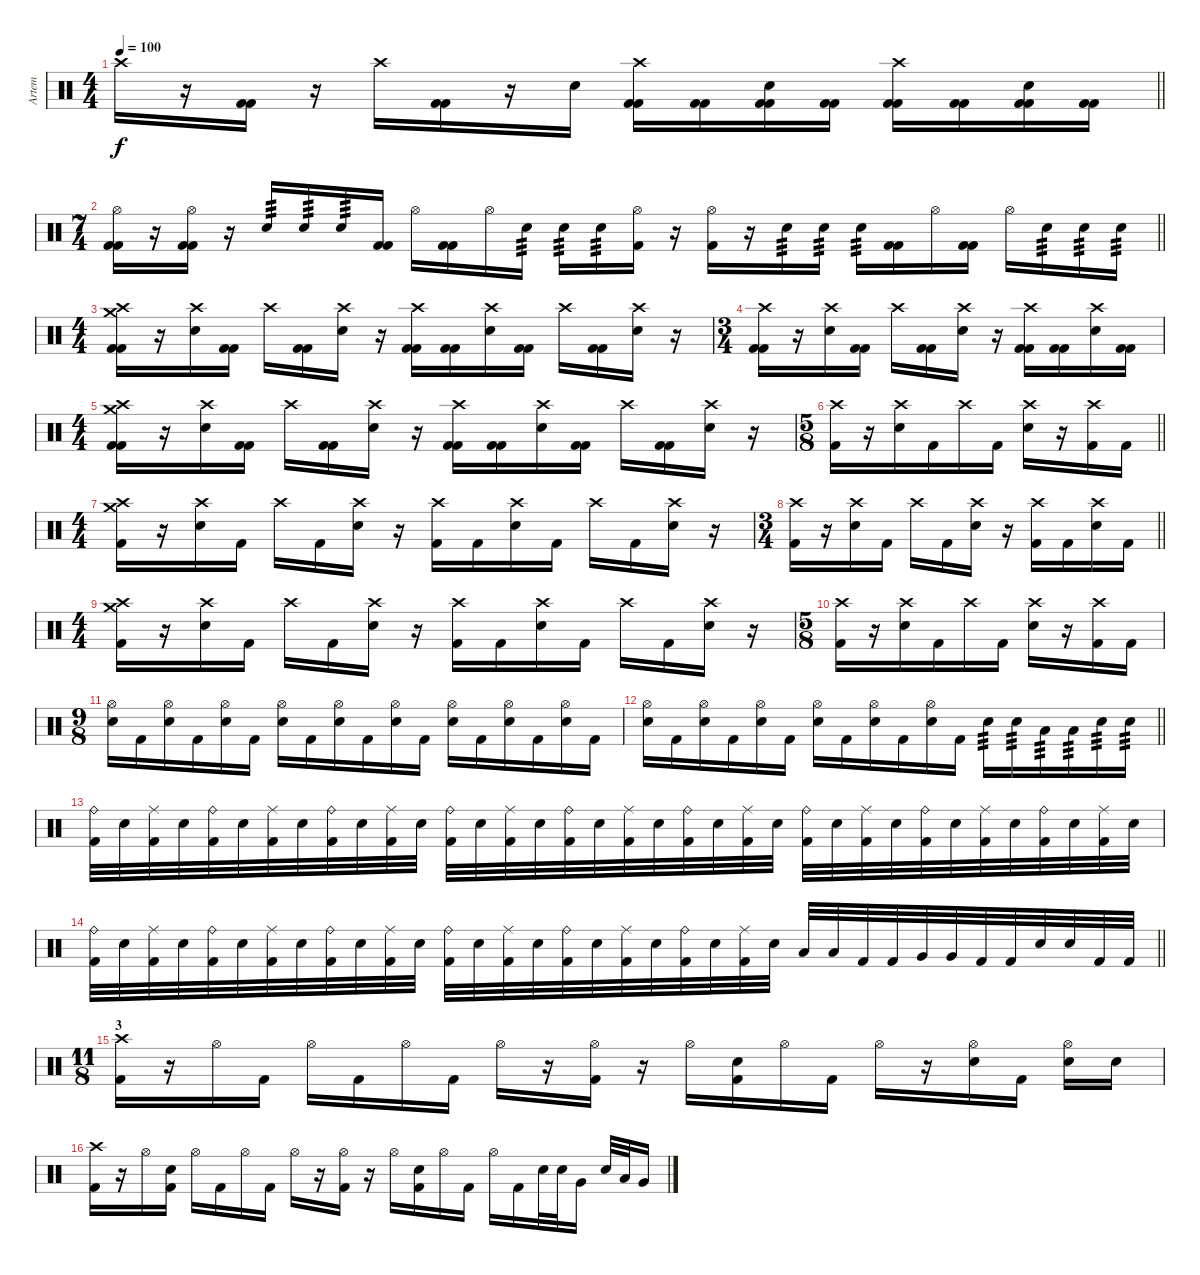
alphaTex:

\track ("Artem" "Artem") {instrument percussion}
\staff {score}
\articulation defaults
\ts (4 4)
\tempo 100
\clef neutral
\barLineRight lightlight
\ks c "Crash high (hit)".16{dy f}
r.16 ("Kick (hit) 2" "Kick (hit) 2").16 r.16 "Crash high (hit)".16 ("Kick (hit) 2" "Kick (hit) 2").16 r.16 "Snare (hit) 2".16 ("Crash high (hit)" "Kick (hit) 2" "Kick (hit) 2").16 ("Kick (hit) 2" "Kick (hit) 2").16 ("Snare (hit) 2" "Kick (hit) 2" "Kick (hit) 2").16 ("Kick (hit) 2" "Kick (hit) 2").16 ("Crash high (hit)" "Kick (hit) 2" "Kick (hit) 2").16 ("Kick (hit) 2" "Kick (hit) 2").16 ("Snare (hit) 2" "Kick (hit) 2" "Kick (hit) 2").16 ("Kick (hit) 2" "Kick (hit) 2").16 |
\ts (7 4)
\barLineRight lightlight
("Kick (hit) 2" "Hi-Hat (open)" "Kick (hit) 2").16 r.16 ("Kick (hit) 2" "Hi-Hat (open)" "Kick (hit) 2").16 r.16 "Snare (hit) 2".16{tp 3} "Snare (hit) 2".16{tp 3} "Snare (hit) 2".16{tp 3} ("Kick (hit) 2" "Kick (hit) 2").16 "Hi-Hat (open)".16 ("Kick (hit) 2" "Kick (hit) 2").16 "Hi-Hat (open)".16 "Snare (hit) 2".16{tp 3} "Snare (hit) 2".16{tp 3} "Snare (hit) 2".16{tp 3} ("Kick (hit) 2" "Hi-Hat (open)").16 r.16 ("Kick (hit) 2" "Hi-Hat (open)").16 r.16 "Snare (hit) 2".16{tp 3} "Snare (hit) 2".16{tp 3} "Snare (hit) 2".16{tp 3} ("Kick (hit) 2" "Kick (hit) 2").16 "Hi-Hat (open)".16 ("Kick (hit) 2" "Kick (hit) 2").16 "Hi-Hat (open)".16 "Snare (hit) 2".16{tp 3} "Snare (hit) 2".16{tp 3} "Snare (hit) 2".16{tp 3} |
\ts (4 4)
\section ("" "")
("Crash high (hit)" "Crash medium (hit)" "Kick (hit) 2" "Kick (hit) 2").16 r.16 ("Crash high (hit)" "Snare (hit) 2").16 ("Kick (hit) 2" "Kick (hit) 2").16 "Crash high (hit)".16 ("Kick (hit) 2" "Kick (hit) 2").16 ("Crash high (hit)" "Snare (hit) 2").16 r.16 ("Crash high (hit)" "Kick (hit) 2" "Kick (hit) 2").16 ("Kick (hit) 2" "Kick (hit) 2").16 ("Crash high (hit)" "Snare (hit) 2").16 ("Kick (hit) 2" "Kick (hit) 2").16 "Crash high (hit)".16 ("Kick (hit) 2" "Kick (hit) 2").16 ("Crash high (hit)" "Snare (hit) 2").16 r.16 |
\ts (3 4)
("Crash high (hit)" "Kick (hit) 2" "Kick (hit) 2").16 r.16 ("Crash high (hit)" "Snare (hit) 2").16 ("Kick (hit) 2" "Kick (hit) 2").16 "Crash high (hit)".16 ("Kick (hit) 2" "Kick (hit) 2").16 ("Crash high (hit)" "Snare (hit) 2").16 r.16 ("Crash high (hit)" "Kick (hit) 2" "Kick (hit) 2").16 ("Kick (hit) 2" "Kick (hit) 2").16 ("Crash high (hit)" "Snare (hit) 2").16 ("Kick (hit) 2" "Kick (hit) 2").16 |
\ts (4 4)
("Crash high (hit)" "Crash medium (hit)" "Kick (hit) 2" "Kick (hit) 2").16 r.16 ("Crash high (hit)" "Snare (hit) 2").16 ("Kick (hit) 2" "Kick (hit) 2").16 "Crash high (hit)".16 ("Kick (hit) 2" "Kick (hit) 2").16 ("Crash high (hit)" "Snare (hit) 2").16 r.16 ("Crash high (hit)" "Kick (hit) 2" "Kick (hit) 2").16 ("Kick (hit) 2" "Kick (hit) 2").16 ("Crash high (hit)" "Snare (hit) 2").16 ("Kick (hit) 2" "Kick (hit) 2").16 "Crash high (hit)".16 ("Kick (hit) 2" "Kick (hit) 2").16 ("Crash high (hit)" "Snare (hit) 2").16 r.16 |
\ts (5 8)
\barLineRight lightlight
("Crash high (hit)" "Kick (hit) 2").16 r.16 ("Crash high (hit)" "Snare (hit) 2").16 "Kick (hit) 2".16 "Crash high (hit)".16 "Kick (hit) 2".16 ("Crash high (hit)" "Snare (hit) 2").16 r.16 ("Crash high (hit)" "Kick (hit) 2").16 "Kick (hit) 2".16 |
\ts (4 4)
("Crash high (hit)" "Kick (hit) 2" "Crash medium (hit)").16 r.16 ("Crash high (hit)" "Snare (hit) 2").16 "Kick (hit) 2".16 "Crash high (hit)".16 "Kick (hit) 2".16 ("Crash high (hit)" "Snare (hit) 2").16 r.16 ("Crash high (hit)" "Kick (hit) 2").16 "Kick (hit) 2".16 ("Crash high (hit)" "Snare (hit) 2").16 "Kick (hit) 2".16 "Crash high (hit)".16 "Kick (hit) 2".16 ("Crash high (hit)" "Snare (hit) 2").16 r.16 |
\ts (3 4)
\barLineRight lightlight
("Crash high (hit)" "Kick (hit) 2").16 r.16 ("Crash high (hit)" "Snare (hit) 2").16 "Kick (hit) 2".16 "Crash high (hit)".16 "Kick (hit) 2".16 ("Crash high (hit)" "Snare (hit) 2").16 r.16 ("Crash high (hit)" "Kick (hit) 2").16 "Kick (hit) 2".16 ("Crash high (hit)" "Snare (hit) 2").16 "Kick (hit) 2".16 |
\ts (4 4)
\section ("" "")
("Crash high (hit)" "Kick (hit) 2" "Crash medium (hit)").16 r.16 ("Crash high (hit)" "Snare (hit) 2").16 "Kick (hit) 2".16 "Crash high (hit)".16 "Kick (hit) 2".16 ("Crash high (hit)" "Snare (hit) 2").16 r.16 ("Crash high (hit)" "Kick (hit) 2").16 "Kick (hit) 2".16 ("Crash high (hit)" "Snare (hit) 2").16 "Kick (hit) 2".16 "Crash high (hit)".16 "Kick (hit) 2".16 ("Crash high (hit)" "Snare (hit) 2").16 r.16 |
\ts (5 8)
("Crash high (hit)" "Kick (hit) 2").16 r.16 ("Crash high (hit)" "Snare (hit) 2").16 "Kick (hit) 2".16 "Crash high (hit)".16 "Kick (hit) 2".16 ("Crash high (hit)" "Snare (hit) 2").16 r.16 ("Crash high (hit)" "Kick (hit) 2").16 "Kick (hit) 2".16 |
\ts (9 8)
("Hi-Hat (open)" "Snare (hit) 2").16 "Kick (hit) 2".16 ("Hi-Hat (open)" "Snare (hit) 2").16 "Kick (hit) 2".16 ("Hi-Hat (open)" "Snare (hit) 2").16 "Kick (hit) 2".16 ("Hi-Hat (open)" "Snare (hit) 2").16 "Kick (hit) 2".16 ("Hi-Hat (open)" "Snare (hit) 2").16 "Kick (hit) 2".16 ("Hi-Hat (open)" "Snare (hit) 2").16 "Kick (hit) 2".16 ("Hi-Hat (open)" "Snare (hit) 2").16 "Kick (hit) 2".16 ("Hi-Hat (open)" "Snare (hit) 2").16 "Kick (hit) 2".16 ("Hi-Hat (open)" "Snare (hit) 2").16 "Kick (hit) 2".16 |
\barLineRight lightlight
("Hi-Hat (open)" "Snare (hit) 2").16 "Kick (hit) 2".16 ("Hi-Hat (open)" "Snare (hit) 2").16 "Kick (hit) 2".16 ("Hi-Hat (open)" "Snare (hit) 2").16 "Kick (hit) 2".16 ("Hi-Hat (open)" "Snare (hit) 2").16 "Kick (hit) 2".16 ("Hi-Hat (open)" "Snare (hit) 2").16 "Kick (hit) 2".16 ("Hi-Hat (open)" "Snare (hit) 2").16 "Kick (hit) 2".16 "Snare (hit) 2".16{tp 3} "Snare (hit) 2".16{tp 3} "Low Tom (hit)".16{tp 3} "Low Tom (hit)".16{tp 3} "Snare (hit) 2".16{tp 3} "Snare (hit) 2".16{tp 3} |
("Ride (bell)" "Kick (hit) 2").32 "Snare (hit) 2".32 ("Ride (middle)" "Kick (hit) 2").32 "Snare (hit) 2".32 ("Ride (bell)" "Kick (hit) 2").32 "Snare (hit) 2".32 ("Ride (middle)" "Kick (hit) 2").32 "Snare (hit) 2".32 ("Ride (bell)" "Kick (hit) 2").32 "Snare (hit) 2".32 ("Ride (middle)" "Kick (hit) 2").32 "Snare (hit) 2".32 ("Ride (bell)" "Kick (hit) 2").32 "Snare (hit) 2".32 ("Ride (middle)" "Kick (hit) 2").32 "Snare (hit) 2".32 ("Ride (bell)" "Kick (hit) 2").32 "Snare (hit) 2".32 ("Ride (middle)" "Kick (hit) 2").32 "Snare (hit) 2".32 ("Ride (bell)" "Kick (hit) 2").32 "Snare (hit) 2".32 ("Ride (middle)" "Kick (hit) 2").32 "Snare (hit) 2".32 ("Ride (bell)" "Kick (hit) 2").32 "Snare (hit) 2".32 ("Ride (middle)" "Kick (hit) 2").32 "Snare (hit) 2".32 ("Ride (bell)" "Kick (hit) 2").32 "Snare (hit) 2".32 ("Ride (middle)" "Kick (hit) 2").32 "Snare (hit) 2".32 ("Ride (bell)" "Kick (hit) 2").32 "Snare (hit) 2".32 ("Ride (middle)" "Kick (hit) 2").32 "Snare (hit) 2".32 |
\barLineRight lightlight
("Ride (bell)" "Kick (hit) 2").32 "Snare (hit) 2".32 ("Ride (middle)" "Kick (hit) 2").32 "Snare (hit) 2".32 ("Ride (bell)" "Kick (hit) 2").32 "Snare (hit) 2".32 ("Ride (middle)" "Kick (hit) 2").32 "Snare (hit) 2".32 ("Ride (bell)" "Kick (hit) 2").32 "Snare (hit) 2".32 ("Ride (middle)" "Kick (hit) 2").32 "Snare (hit) 2".32 ("Ride (bell)" "Kick (hit) 2").32 "Snare (hit) 2".32 ("Ride (middle)" "Kick (hit) 2").32 "Snare (hit) 2".32 ("Ride (bell)" "Kick (hit) 2").32 "Snare (hit) 2".32 ("Ride (middle)" "Kick (hit) 2").32 "Snare (hit) 2".32 ("Ride (bell)" "Kick (hit) 2").32 "Snare (hit) 2".32 ("Ride (middle)" "Kick (hit) 2").32 "Snare (hit) 2".32 "Low Floor Tom (hit)".32 "Low Floor Tom (hit)".32 "Kick (hit) 2".32 "Kick (hit) 2".32 "Very Low Tom (hit)".32 "Very Low Tom (hit)".32 "Kick (hit) 2".32 "Kick (hit) 2".32 "Snare (hit) 2".32 "Snare (hit) 2".32 "Kick (hit) 2".32 "Kick (hit) 2".32 |
\ts (11 8)
\section ("" "3")
("Crash high (hit)" "Kick (hit) 2").16 r.16 "Hi-Hat (open)".16 "Kick (hit) 2".16 "Hi-Hat (open)".16 "Kick (hit) 2".16 "Hi-Hat (open)".16 "Kick (hit) 2".16 "Hi-Hat (open)".16 r.16 ("Hi-Hat (open)" "Kick (hit) 2").16 r.16 "Hi-Hat (open)".16 ("Kick (hit) 2" "Snare (hit) 2").16 "Hi-Hat (open)".16 "Kick (hit) 2".16 "Hi-Hat (open)".16 r.16 ("Hi-Hat (open)" "Snare (hit) 2").16 "Kick (hit) 2".16 ("Hi-Hat (open)" "Snare (hit) 2").16 "Snare (hit) 2".16 |
("Crash high (hit)" "Kick (hit) 2").16 r.16 "Hi-Hat (open)".16 ("Kick (hit) 2" "Snare (hit) 2").16 "Hi-Hat (open)".16 "Kick (hit) 2".16 "Hi-Hat (open)".16 "Kick (hit) 2".16 "Hi-Hat (open)".16 r.16 ("Hi-Hat (open)" "Kick (hit) 2").16 r.16 "Hi-Hat (open)".16 ("Kick (hit) 2" "Snare (hit) 2").16 "Hi-Hat (open)".16 "Kick (hit) 2".16 "Hi-Hat (open)".16 "Kick (hit) 2".16 "Snare (hit) 2".32 "Snare (hit) 2".32 "Very Low Tom (hit)".16 "Snare (hit) 2".32 "Low Floor Tom (hit)".32 "Very Low Tom (hit)".16
